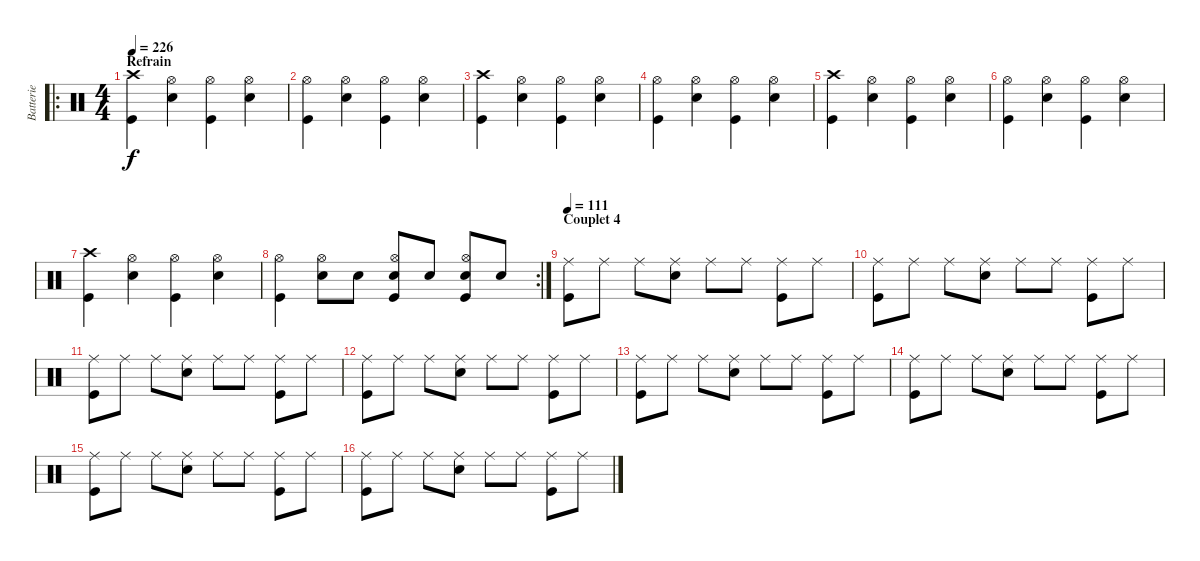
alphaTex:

\track ("Batterie" "Batterie") {instrument percussion}
\staff {score}
\articulation defaults
\ro
\ts (4 4)
\section ("" "Refrain")
\tempo 226
\clef neutral
\ks c
("Crash high (hit)" "Kick (hit)").4{dy f} ("Hi-Hat (open)" "Electric Snare (hit)").4 ("Hi-Hat (open)" "Kick (hit)").4 ("Hi-Hat (open)" "Electric Snare (hit)").4 |
("Hi-Hat (open)" "Kick (hit)").4 ("Hi-Hat (open)" "Electric Snare (hit)").4 ("Hi-Hat (open)" "Kick (hit)").4 ("Hi-Hat (open)" "Electric Snare (hit)").4 |
("Crash high (hit)" "Kick (hit)").4 ("Hi-Hat (open)" "Electric Snare (hit)").4 ("Hi-Hat (open)" "Kick (hit)").4 ("Hi-Hat (open)" "Electric Snare (hit)").4 |
("Hi-Hat (open)" "Kick (hit)").4 ("Hi-Hat (open)" "Electric Snare (hit)").4 ("Hi-Hat (open)" "Kick (hit)").4 ("Hi-Hat (open)" "Electric Snare (hit)").4 |
("Crash high (hit)" "Kick (hit)").4 ("Hi-Hat (open)" "Electric Snare (hit)").4 ("Hi-Hat (open)" "Kick (hit)").4 ("Hi-Hat (open)" "Electric Snare (hit)").4 |
("Hi-Hat (open)" "Kick (hit)").4 ("Hi-Hat (open)" "Electric Snare (hit)").4 ("Hi-Hat (open)" "Kick (hit)").4 ("Hi-Hat (open)" "Electric Snare (hit)").4 |
("Crash high (hit)" "Kick (hit)").4 ("Hi-Hat (open)" "Electric Snare (hit)").4 ("Hi-Hat (open)" "Kick (hit)").4 ("Hi-Hat (open)" "Electric Snare (hit)").4 |
\rc 2
("Hi-Hat (open)" "Kick (hit)").4 ("Hi-Hat (open)" "Electric Snare (hit)").8 "Electric Snare (hit)".8 ("Hi-Hat (open)" "Electric Snare (hit)" "Kick (hit)").8 "Electric Snare (hit)".8 ("Hi-Hat (open)" "Electric Snare (hit)" "Kick (hit)").8 "Electric Snare (hit)".8 |
\section ("" "Couplet 4")
\tempo 111
("Ride (middle)" "Kick (hit)").8 "Ride (middle)".8 "Ride (middle)".8 ("Ride (middle)" "Electric Snare (hit)").8 "Ride (middle)".8 "Ride (middle)".8 ("Ride (middle)" "Kick (hit)").8 "Ride (middle)".8 |
("Ride (middle)" "Kick (hit)").8 "Ride (middle)".8 "Ride (middle)".8 ("Ride (middle)" "Electric Snare (hit)").8 "Ride (middle)".8 "Ride (middle)".8 ("Ride (middle)" "Kick (hit)").8 "Ride (middle)".8 |
("Ride (middle)" "Kick (hit)").8 "Ride (middle)".8 "Ride (middle)".8 ("Ride (middle)" "Electric Snare (hit)").8 "Ride (middle)".8 "Ride (middle)".8 ("Ride (middle)" "Kick (hit)").8 "Ride (middle)".8 |
("Ride (middle)" "Kick (hit)").8 "Ride (middle)".8 "Ride (middle)".8 ("Ride (middle)" "Electric Snare (hit)").8 "Ride (middle)".8 "Ride (middle)".8 ("Ride (middle)" "Kick (hit)").8 "Ride (middle)".8 |
("Ride (middle)" "Kick (hit)").8 "Ride (middle)".8 "Ride (middle)".8 ("Ride (middle)" "Electric Snare (hit)").8 "Ride (middle)".8 "Ride (middle)".8 ("Ride (middle)" "Kick (hit)").8 "Ride (middle)".8 |
("Ride (middle)" "Kick (hit)").8 "Ride (middle)".8 "Ride (middle)".8 ("Ride (middle)" "Electric Snare (hit)").8 "Ride (middle)".8 "Ride (middle)".8 ("Ride (middle)" "Kick (hit)").8 "Ride (middle)".8 |
("Ride (middle)" "Kick (hit)").8 "Ride (middle)".8 "Ride (middle)".8 ("Ride (middle)" "Electric Snare (hit)").8 "Ride (middle)".8 "Ride (middle)".8 ("Ride (middle)" "Kick (hit)").8 "Ride (middle)".8 |
("Ride (middle)" "Kick (hit)").8 "Ride (middle)".8 "Ride (middle)".8 ("Ride (middle)" "Electric Snare (hit)").8 "Ride (middle)".8 "Ride (middle)".8 ("Ride (middle)" "Kick (hit)").8 "Ride (middle)".8
